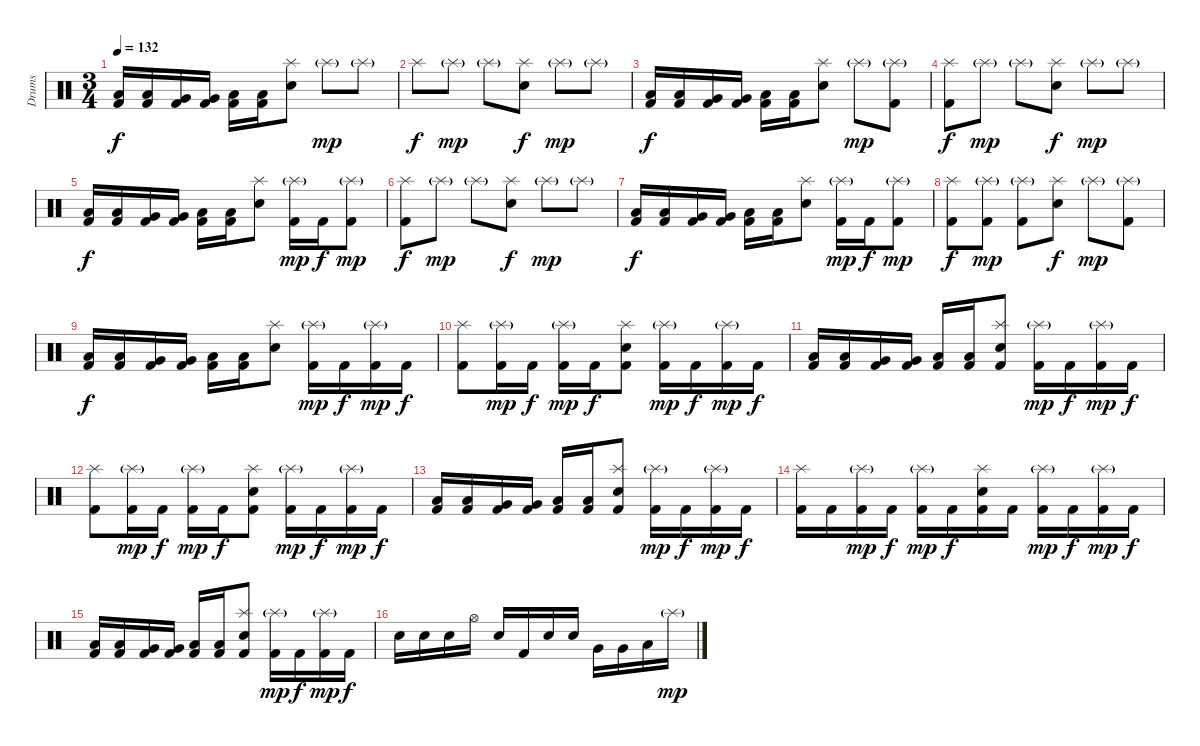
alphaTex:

\track ("Drums" "Drums") {instrument percussion}
\staff {score}
\articulation defaults
\ts (3 4)
\tempo 132
\clef neutral
\ks c
("Low Tom (hit)" "Kick (hit) 2").16{dy f} ("Low Tom (hit)" "Kick (hit) 2").16 ("Very Low Tom (hit)" "Kick (hit) 2").16 ("Very Low Tom (hit)" "Kick (hit) 2").16 ("Low Floor Tom (hit)" "Kick (hit) 2").16 ("Low Floor Tom (hit)" "Kick (hit) 2").16 ("Splash (hit)" "Snare (hit) 2").8 "Splash (hit)"{g}.8{dy mp} "Splash (hit)"{g}.8 |
"Splash (hit)".8{dy f} "Splash (hit)"{g}.8{dy mp} "Splash (hit)"{g}.8 ("Splash (hit)" "Snare (hit) 2").8{dy f} "Splash (hit)"{g}.8{dy mp} "Splash (hit)"{g}.8 |
("Low Tom (hit)" "Kick (hit) 2").16{dy f} ("Low Tom (hit)" "Kick (hit) 2").16 ("Very Low Tom (hit)" "Kick (hit) 2").16 ("Very Low Tom (hit)" "Kick (hit) 2").16 ("Low Floor Tom (hit)" "Kick (hit) 2").16 ("Low Floor Tom (hit)" "Kick (hit) 2").16 ("Splash (hit)" "Snare (hit) 2").8 "Splash (hit)"{g}.8{dy mp} ("Splash (hit)"{g} "Kick (hit) 2").8 |
("Splash (hit)" "Kick (hit) 2").8{dy f} "Splash (hit)"{g}.8{dy mp} "Splash (hit)"{g}.8 ("Splash (hit)" "Snare (hit) 2").8{dy f} "Splash (hit)"{g}.8{dy mp} "Splash (hit)"{g}.8 |
("Low Tom (hit)" "Kick (hit) 2").16{dy f} ("Low Tom (hit)" "Kick (hit) 2").16 ("Very Low Tom (hit)" "Kick (hit) 2").16 ("Very Low Tom (hit)" "Kick (hit) 2").16 ("Low Floor Tom (hit)" "Kick (hit) 2").16 ("Low Floor Tom (hit)" "Kick (hit) 2").16 ("Splash (hit)" "Snare (hit) 2").8 ("Splash (hit)"{g} "Kick (hit) 2").16{dy mp} "Kick (hit) 2".16{dy f} ("Splash (hit)"{g} "Kick (hit) 2").8{dy mp} |
("Splash (hit)" "Kick (hit) 2").8{dy f} "Splash (hit)"{g}.8{dy mp} "Splash (hit)"{g}.8 ("Splash (hit)" "Snare (hit) 2").8{dy f} "Splash (hit)"{g}.8{dy mp} "Splash (hit)"{g}.8 |
("Low Tom (hit)" "Kick (hit) 2").16{dy f} ("Low Tom (hit)" "Kick (hit) 2").16 ("Very Low Tom (hit)" "Kick (hit) 2").16 ("Very Low Tom (hit)" "Kick (hit) 2").16 ("Low Floor Tom (hit)" "Kick (hit) 2").16 ("Low Floor Tom (hit)" "Kick (hit) 2").16 ("Splash (hit)" "Snare (hit) 2").8 ("Splash (hit)"{g} "Kick (hit) 2").16{dy mp} "Kick (hit) 2".16{dy f} ("Splash (hit)"{g} "Kick (hit) 2").8{dy mp} |
("Splash (hit)" "Kick (hit) 2").8{dy f} ("Splash (hit)"{g} "Kick (hit) 2").8{dy mp} ("Splash (hit)"{g} "Kick (hit) 2").8 ("Splash (hit)" "Snare (hit) 2").8{dy f} "Splash (hit)"{g}.8{dy mp} ("Splash (hit)"{g} "Kick (hit) 2").8 |
("Low Tom (hit)" "Kick (hit) 2").16{dy f} ("Low Tom (hit)" "Kick (hit) 2").16 ("Very Low Tom (hit)" "Kick (hit) 2").16 ("Very Low Tom (hit)" "Kick (hit) 2").16 ("Low Floor Tom (hit)" "Kick (hit) 2").16 ("Low Floor Tom (hit)" "Kick (hit) 2").16 ("Splash (hit)" "Snare (hit) 2").8 ("Splash (hit)"{g} "Kick (hit) 2").16{dy mp} "Kick (hit) 2".16{dy f} ("Splash (hit)"{g} "Kick (hit) 2").16{dy mp} "Kick (hit) 2".16{dy f} |
("Splash (hit)" "Kick (hit) 2").8 ("Splash (hit)"{g} "Kick (hit) 2").16{dy mp} "Kick (hit) 2".16{dy f} ("Splash (hit)"{g} "Kick (hit) 2").16{dy mp} "Kick (hit) 2".16{dy f} ("Splash (hit)" "Snare (hit) 2" "Kick (hit) 2").8 ("Splash (hit)"{g} "Kick (hit) 2").16{dy mp} "Kick (hit) 2".16{dy f} ("Splash (hit)"{g} "Kick (hit) 2").16{dy mp} "Kick (hit) 2".16{dy f} |
("Low Tom (hit)" "Kick (hit) 2").16 ("Low Tom (hit)" "Kick (hit) 2").16 ("Very Low Tom (hit)" "Kick (hit) 2").16 ("Very Low Tom (hit)" "Kick (hit) 2").16 ("Low Floor Tom (hit)" "Kick (hit) 2").16 ("Low Floor Tom (hit)" "Kick (hit) 2").16 ("Splash (hit)" "Snare (hit) 2" "Kick (hit) 2").8 ("Splash (hit)"{g} "Kick (hit) 2").16{dy mp} "Kick (hit) 2".16{dy f} ("Splash (hit)"{g} "Kick (hit) 2").16{dy mp} "Kick (hit) 2".16{dy f} |
("Splash (hit)" "Kick (hit) 2").8 ("Splash (hit)"{g} "Kick (hit) 2").16{dy mp} "Kick (hit) 2".16{dy f} ("Splash (hit)"{g} "Kick (hit) 2").16{dy mp} "Kick (hit) 2".16{dy f} ("Splash (hit)" "Snare (hit) 2" "Kick (hit) 2").8 ("Splash (hit)"{g} "Kick (hit) 2").16{dy mp} "Kick (hit) 2".16{dy f} ("Splash (hit)"{g} "Kick (hit) 2").16{dy mp} "Kick (hit) 2".16{dy f} |
("Low Tom (hit)" "Kick (hit) 2").16 ("Low Tom (hit)" "Kick (hit) 2").16 ("Very Low Tom (hit)" "Kick (hit) 2").16 ("Very Low Tom (hit)" "Kick (hit) 2").16 ("Low Floor Tom (hit)" "Kick (hit) 2").16 ("Low Floor Tom (hit)" "Kick (hit) 2").16 ("Splash (hit)" "Snare (hit) 2" "Kick (hit) 2").8 ("Splash (hit)"{g} "Kick (hit) 2").16{dy mp} "Kick (hit) 2".16{dy f} ("Splash (hit)"{g} "Kick (hit) 2").16{dy mp} "Kick (hit) 2".16{dy f} |
("Splash (hit)" "Kick (hit) 2").16 "Kick (hit) 2".16 ("Splash (hit)"{g} "Kick (hit) 2").16{dy mp} "Kick (hit) 2".16{dy f} ("Splash (hit)"{g} "Kick (hit) 2").16{dy mp} "Kick (hit) 2".16{dy f} ("Splash (hit)" "Snare (hit) 2" "Kick (hit) 2").16 "Kick (hit) 2".16 ("Splash (hit)"{g} "Kick (hit) 2").16{dy mp} "Kick (hit) 2".16{dy f} ("Splash (hit)"{g} "Kick (hit) 2").16{dy mp} "Kick (hit) 2".16{dy f} |
("Low Tom (hit)" "Kick (hit) 2").16 ("Low Tom (hit)" "Kick (hit) 2").16 ("Very Low Tom (hit)" "Kick (hit) 2").16 ("Very Low Tom (hit)" "Kick (hit) 2").16 ("Low Floor Tom (hit)" "Kick (hit) 2").16 ("Low Floor Tom (hit)" "Kick (hit) 2").16 ("Splash (hit)" "Snare (hit) 2" "Kick (hit) 2").8 ("Splash (hit)"{g} "Kick (hit) 2").16{dy mp} "Kick (hit) 2".16{dy f} ("Splash (hit)"{g} "Kick (hit) 2").16{dy mp} "Kick (hit) 2".16{dy f} |
"Snare (hit) 2".16 "Snare (hit) 2".16 "Snare (hit) 2".16 "Hi-Hat (open)".16 "Snare (hit) 2".16 "Kick (hit) 2".16 "Snare (hit) 2".16 "Snare (hit) 2".16 "Very Low Tom (hit)".16 "Very Low Tom (hit)".16 "Low Floor Tom (hit)".16 "Splash (hit)"{g}.16{dy mp}
